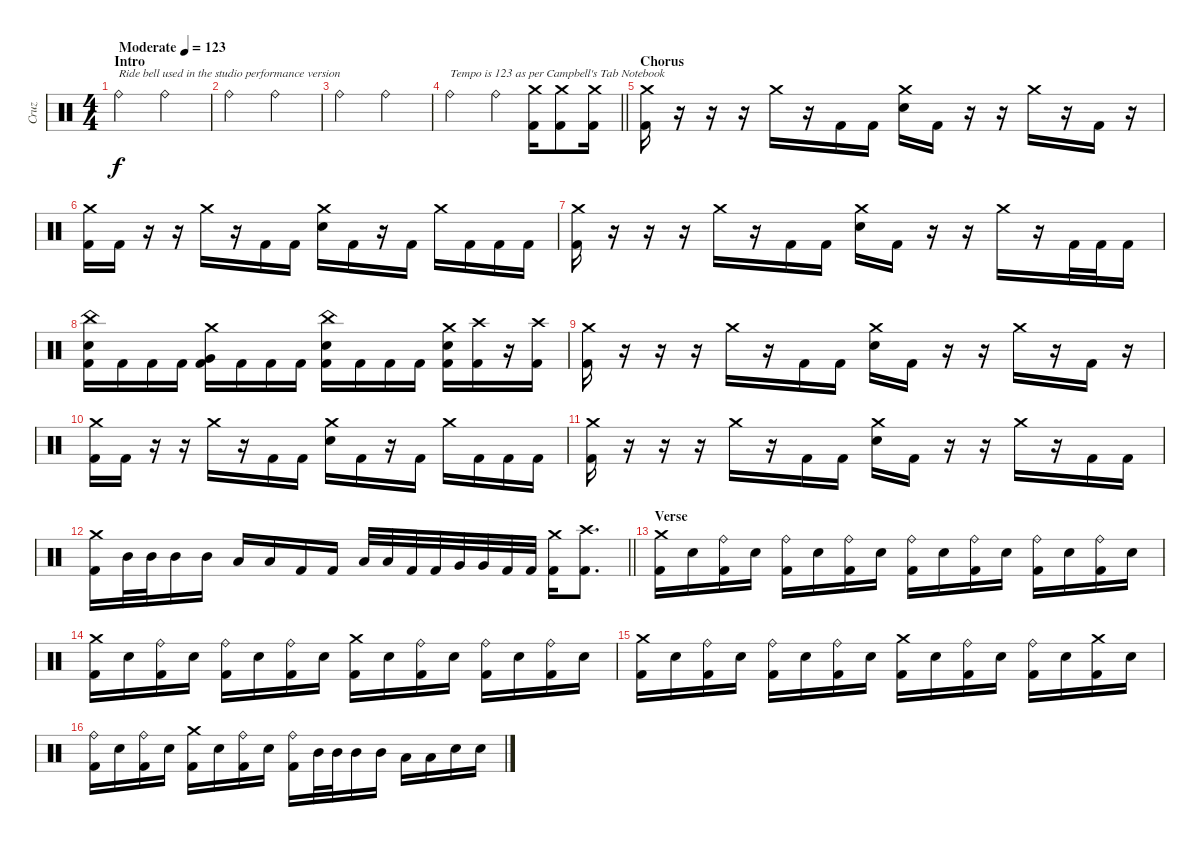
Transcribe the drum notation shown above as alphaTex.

\track ("Cruz" "Cruz") {instrument percussion}
\staff {score}
\articulation defaults
\ts (4 4)
\section ("" "Intro")
\tempo (123 "Moderate")
\clef neutral
\ks c "Ride (bell)".2{txt "Ride bell used in the studio performance version" dy f} "Ride (bell)".2
|
"Ride (bell)".2 "Ride (bell)".2 |
"Ride (bell)".2 "Ride (bell)".2 |
\barLineRight lightlight "Ride (bell)".2{txt "Tempo is 123 as per Campbell's Tab Notebook"} "Ride (bell)".4
("Crash medium (hit)" "Kick (hit) 2").16 ("Crash medium (hit)" "Kick (hit) 2").8 ("Crash medium (hit)" "Kick (hit) 2").16 |
\section ("" "Chorus")
("Crash medium (hit)" "Kick (hit) 2").16 r.16 r.16 r.16 "Crash medium (hit)".16 r.16 "Kick (hit) 2".16 "Kick (hit) 2".16 ("Crash medium (hit)" "Snare (hit) 2").16 "Kick (hit) 2".16 r.16 r.16 "Crash medium (hit)".16 r.16 "Kick (hit) 2".16 r.16 |
("Crash medium (hit)" "Kick (hit) 2").16 "Kick (hit) 2".16 r.16 r.16 "Crash medium (hit)".16 r.16 "Kick (hit) 2".16 "Kick (hit) 2".16 ("Crash medium (hit)" "Snare (hit) 2").16 "Kick (hit) 2".16 r.16 "Kick (hit) 2".16 "Crash medium (hit)".16 "Kick (hit) 2".16 "Kick (hit) 2".16 "Kick (hit) 2".16 |
("Crash medium (hit)" "Kick (hit) 2").16 r.16 r.16 r.16 "Crash medium (hit)".16 r.16 "Kick (hit) 2".16 "Kick (hit) 2".16 ("Crash medium (hit)" "Snare (hit) 2").16 "Kick (hit) 2".16 r.16 r.16 "Crash medium (hit)".16 r.16 "Kick (hit) 2".32 "Kick (hit) 2".32 "Kick (hit) 2".16 |
("China (hit)" "Snare (hit) 2" "Kick (hit) 2").16 "Kick (hit) 2".16 "Kick (hit) 2".16 "Kick (hit) 2".16 ("Crash medium (hit)" "Very Low Tom (hit)" "Kick (hit) 2").16 "Kick (hit) 2".16 "Kick (hit) 2".16 "Kick (hit) 2".16 ("China (hit)" "Snare (hit) 2" "Kick (hit) 2").16 "Kick (hit) 2".16 "Kick (hit) 2".16 "Kick (hit) 2".16 ("Crash medium (hit)" "Snare (hit) 2" "Kick (hit) 2").16 ("Crash high (hit)" "Kick (hit) 2").16 r.16 ("Crash high (hit)" "Kick (hit) 2").16 |
("Crash medium (hit)" "Kick (hit) 2").16 r.16 r.16 r.16 "Crash medium (hit)".16 r.16 "Kick (hit) 2".16 "Kick (hit) 2".16 ("Crash medium (hit)" "Snare (hit) 2").16 "Kick (hit) 2".16 r.16 r.16 "Crash medium (hit)".16 r.16 "Kick (hit) 2".16 r.16 |
("Crash medium (hit)" "Kick (hit) 2").16 "Kick (hit) 2".16 r.16 r.16 "Crash medium (hit)".16 r.16 "Kick (hit) 2".16 "Kick (hit) 2".16 ("Crash medium (hit)" "Snare (hit) 2").16 "Kick (hit) 2".16 r.16 "Kick (hit) 2".16 "Crash medium (hit)".16 "Kick (hit) 2".16 "Kick (hit) 2".16 "Kick (hit) 2".16 |
("Crash medium (hit)" "Kick (hit) 2").16 r.16 r.16 r.16 "Crash medium (hit)".16 r.16 "Kick (hit) 2".16 "Kick (hit) 2".16 ("Crash medium (hit)" "Snare (hit) 2").16 "Kick (hit) 2".16 r.16 r.16 "Crash medium (hit)".16 r.16 "Kick (hit) 2".16 "Kick (hit) 2".16 |
\barLineRight lightlight
("Crash medium (hit)" "Kick (hit) 2").16 "Mid Tom (hit)".32 "Mid Tom (hit)".32 "Mid Tom (hit)".16 "Mid Tom (hit)".16 "Low Tom (hit)".16 "Low Tom (hit)".16 "Kick (hit) 2".16 "Kick (hit) 2".16 "Low Tom (hit)".32 "Low Tom (hit)".32 "Kick (hit) 2".32 "Kick (hit) 2".32 "Very Low Tom (hit)".32 "Very Low Tom (hit)".32 "Kick (hit) 2".32 "Kick (hit) 2".32 ("Crash medium (hit)" "Kick (hit) 2").16 ("Crash high (hit)" "Kick (hit) 2").8{d} |
\section ("" "Verse")
("Crash medium (hit)" "Kick (hit) 2").16 "Snare (hit) 2".16 ("Ride (bell)" "Kick (hit) 2").16 "Snare (hit) 2".16 ("Ride (bell)" "Kick (hit) 2").16 "Snare (hit) 2".16 ("Ride (bell)" "Kick (hit) 2").16 "Snare (hit) 2".16 ("Ride (bell)" "Kick (hit) 2").16 "Snare (hit) 2".16 ("Ride (bell)" "Kick (hit) 2").16 "Snare (hit) 2".16 ("Ride (bell)" "Kick (hit) 2").16 "Snare (hit) 2".16 ("Ride (bell)" "Kick (hit) 2").16 "Snare (hit) 2".16 |
("Crash medium (hit)" "Kick (hit) 2").16 "Snare (hit) 2".16 ("Ride (bell)" "Kick (hit) 2").16 "Snare (hit) 2".16 ("Ride (bell)" "Kick (hit) 2").16 "Snare (hit) 2".16 ("Ride (bell)" "Kick (hit) 2").16 "Snare (hit) 2".16 ("Crash medium (hit)" "Kick (hit) 2").16 "Snare (hit) 2".16 ("Ride (bell)" "Kick (hit) 2").16 "Snare (hit) 2".16 ("Ride (bell)" "Kick (hit) 2").16 "Snare (hit) 2".16 ("Ride (bell)" "Kick (hit) 2").16 "Snare (hit) 2".16 |
("Crash medium (hit)" "Kick (hit) 2").16 "Snare (hit) 2".16 ("Ride (bell)" "Kick (hit) 2").16 "Snare (hit) 2".16 ("Ride (bell)" "Kick (hit) 2").16 "Snare (hit) 2".16 ("Ride (bell)" "Kick (hit) 2").16 "Snare (hit) 2".16 ("Crash medium (hit)" "Kick (hit) 2").16 "Snare (hit) 2".16 ("Ride (bell)" "Kick (hit) 2").16 "Snare (hit) 2".16 ("Ride (bell)" "Kick (hit) 2").16 "Snare (hit) 2".16 ("Crash medium (hit)" "Kick (hit) 2").16 "Snare (hit) 2".16 |
("Ride (bell)" "Kick (hit) 2").16 "Snare (hit) 2".16 ("Ride (bell)" "Kick (hit) 2").16 "Snare (hit) 2".16 ("Crash medium (hit)" "Kick (hit) 2").16 "Snare (hit) 2".16 ("Ride (bell)" "Kick (hit) 2").16 "Snare (hit) 2".16 ("Ride (bell)" "Kick (hit) 2").16 "Mid Tom (hit)".32 "Mid Tom (hit)".32 "Mid Tom (hit)".16 "Mid Tom (hit)".16 "Low Tom (hit)".16 "Low Tom (hit)".16 "Snare (hit) 2".16 "Snare (hit) 2".16
